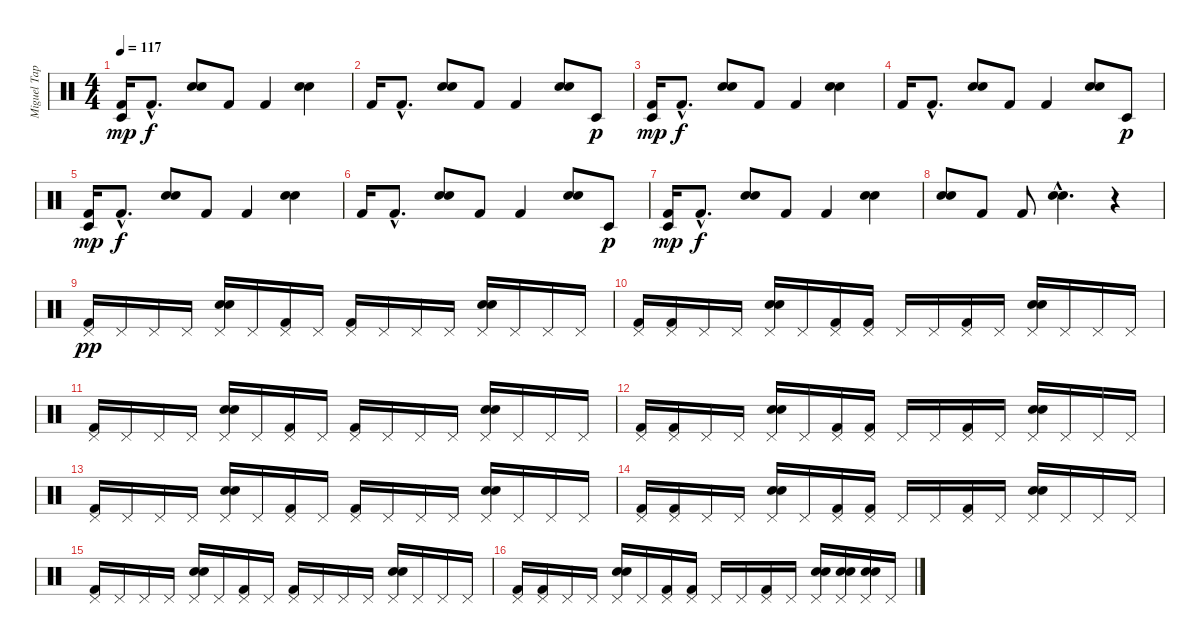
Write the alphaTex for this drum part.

\track ("Miguel Tapia" "Miguel Tap") {instrument percussion}
\staff {score}
\articulation defaults
\ts (4 4)
\tempo 117
\clef neutral
\ks c
("Kick (hit) 2" "Timbale low (hit)").16{dy mp} "Kick (hit) 2"{hac}.8{d dy f} ("Snare (hit) 2" "Electric Snare (hit)").8 "Kick (hit) 2".8 "Kick (hit) 2".4 ("Snare (hit) 2" "Electric Snare (hit)").4 |
"Kick (hit) 2".16 "Kick (hit) 2"{hac}.8{d} ("Snare (hit) 2" "Electric Snare (hit)").8 "Kick (hit) 2".8 "Kick (hit) 2".4 ("Snare (hit) 2" "Electric Snare (hit)").8 "Timbale low (hit)".8{dy p} |
("Kick (hit) 2" "Timbale low (hit)").16{dy mp} "Kick (hit) 2"{hac}.8{d dy f} ("Snare (hit) 2" "Electric Snare (hit)").8 "Kick (hit) 2".8 "Kick (hit) 2".4 ("Snare (hit) 2" "Electric Snare (hit)").4 |
"Kick (hit) 2".16 "Kick (hit) 2"{hac}.8{d} ("Snare (hit) 2" "Electric Snare (hit)").8 "Kick (hit) 2".8 "Kick (hit) 2".4 ("Snare (hit) 2" "Electric Snare (hit)").8 "Timbale low (hit)".8{dy p} |
("Kick (hit) 2" "Timbale low (hit)").16{dy mp} "Kick (hit) 2"{hac}.8{d dy f} ("Snare (hit) 2" "Electric Snare (hit)").8 "Kick (hit) 2".8 "Kick (hit) 2".4 ("Snare (hit) 2" "Electric Snare (hit)").4 |
"Kick (hit) 2".16 "Kick (hit) 2"{hac}.8{d} ("Snare (hit) 2" "Electric Snare (hit)").8 "Kick (hit) 2".8 "Kick (hit) 2".4 ("Snare (hit) 2" "Electric Snare (hit)").8 "Timbale low (hit)".8{dy p} |
("Kick (hit) 2" "Timbale low (hit)").16{dy mp} "Kick (hit) 2"{hac}.8{d dy f} ("Snare (hit) 2" "Electric Snare (hit)").8 "Kick (hit) 2".8 "Kick (hit) 2".4 ("Snare (hit) 2" "Electric Snare (hit)").4 |
("Electric Snare (hit)" "Snare (hit) 2").8 "Kick (hit) 2".8 "Kick (hit) 2".8 ("Electric Snare (hit)"{hac} "Snare (hit) 2"{hac}).4{d} r.4 |
("Kick (hit) 2" "Pedal Hi-Hat (hit)").16{dy pp} "Pedal Hi-Hat (hit)".16 "Pedal Hi-Hat (hit)".16 "Pedal Hi-Hat (hit)".16 ("Snare (hit) 2" "Electric Snare (hit)" "Pedal Hi-Hat (hit)").16 "Pedal Hi-Hat (hit)".16 ("Kick (hit) 2" "Pedal Hi-Hat (hit)").16 "Pedal Hi-Hat (hit)".16 ("Kick (hit) 2" "Pedal Hi-Hat (hit)").16 "Pedal Hi-Hat (hit)".16 "Pedal Hi-Hat (hit)".16 "Pedal Hi-Hat (hit)".16 ("Snare (hit) 2" "Electric Snare (hit)" "Pedal Hi-Hat (hit)").16 "Pedal Hi-Hat (hit)".16 "Pedal Hi-Hat (hit)".16 "Pedal Hi-Hat (hit)".16 |
("Kick (hit) 2" "Pedal Hi-Hat (hit)").16 ("Kick (hit) 2" "Pedal Hi-Hat (hit)").16 "Pedal Hi-Hat (hit)".16 "Pedal Hi-Hat (hit)".16 ("Snare (hit) 2" "Electric Snare (hit)" "Pedal Hi-Hat (hit)").16 "Pedal Hi-Hat (hit)".16 ("Kick (hit) 2" "Pedal Hi-Hat (hit)").16 ("Kick (hit) 2" "Pedal Hi-Hat (hit)").16 "Pedal Hi-Hat (hit)".16 "Pedal Hi-Hat (hit)".16 ("Kick (hit) 2" "Pedal Hi-Hat (hit)").16 "Pedal Hi-Hat (hit)".16 ("Snare (hit) 2" "Electric Snare (hit)" "Pedal Hi-Hat (hit)").16 "Pedal Hi-Hat (hit)".16 "Pedal Hi-Hat (hit)".16 "Pedal Hi-Hat (hit)".16 |
("Kick (hit) 2" "Pedal Hi-Hat (hit)").16 "Pedal Hi-Hat (hit)".16 "Pedal Hi-Hat (hit)".16 "Pedal Hi-Hat (hit)".16 ("Snare (hit) 2" "Electric Snare (hit)" "Pedal Hi-Hat (hit)").16 "Pedal Hi-Hat (hit)".16 ("Kick (hit) 2" "Pedal Hi-Hat (hit)").16 "Pedal Hi-Hat (hit)".16 ("Kick (hit) 2" "Pedal Hi-Hat (hit)").16 "Pedal Hi-Hat (hit)".16 "Pedal Hi-Hat (hit)".16 "Pedal Hi-Hat (hit)".16 ("Snare (hit) 2" "Electric Snare (hit)" "Pedal Hi-Hat (hit)").16 "Pedal Hi-Hat (hit)".16 "Pedal Hi-Hat (hit)".16 "Pedal Hi-Hat (hit)".16 |
("Kick (hit) 2" "Pedal Hi-Hat (hit)").16 ("Kick (hit) 2" "Pedal Hi-Hat (hit)").16 "Pedal Hi-Hat (hit)".16 "Pedal Hi-Hat (hit)".16 ("Snare (hit) 2" "Electric Snare (hit)" "Pedal Hi-Hat (hit)").16 "Pedal Hi-Hat (hit)".16 ("Kick (hit) 2" "Pedal Hi-Hat (hit)").16 ("Kick (hit) 2" "Pedal Hi-Hat (hit)").16 "Pedal Hi-Hat (hit)".16 "Pedal Hi-Hat (hit)".16 ("Kick (hit) 2" "Pedal Hi-Hat (hit)").16 "Pedal Hi-Hat (hit)".16 ("Snare (hit) 2" "Electric Snare (hit)" "Pedal Hi-Hat (hit)").16 "Pedal Hi-Hat (hit)".16 "Pedal Hi-Hat (hit)".16 "Pedal Hi-Hat (hit)".16 |
("Kick (hit) 2" "Pedal Hi-Hat (hit)").16 "Pedal Hi-Hat (hit)".16 "Pedal Hi-Hat (hit)".16 "Pedal Hi-Hat (hit)".16 ("Snare (hit) 2" "Electric Snare (hit)" "Pedal Hi-Hat (hit)").16 "Pedal Hi-Hat (hit)".16 ("Kick (hit) 2" "Pedal Hi-Hat (hit)").16 "Pedal Hi-Hat (hit)".16 ("Kick (hit) 2" "Pedal Hi-Hat (hit)").16 "Pedal Hi-Hat (hit)".16 "Pedal Hi-Hat (hit)".16 "Pedal Hi-Hat (hit)".16 ("Snare (hit) 2" "Electric Snare (hit)" "Pedal Hi-Hat (hit)").16 "Pedal Hi-Hat (hit)".16 "Pedal Hi-Hat (hit)".16 "Pedal Hi-Hat (hit)".16 |
("Kick (hit) 2" "Pedal Hi-Hat (hit)").16 ("Kick (hit) 2" "Pedal Hi-Hat (hit)").16 "Pedal Hi-Hat (hit)".16 "Pedal Hi-Hat (hit)".16 ("Snare (hit) 2" "Electric Snare (hit)" "Pedal Hi-Hat (hit)").16 "Pedal Hi-Hat (hit)".16 ("Kick (hit) 2" "Pedal Hi-Hat (hit)").16 ("Kick (hit) 2" "Pedal Hi-Hat (hit)").16 "Pedal Hi-Hat (hit)".16 "Pedal Hi-Hat (hit)".16 ("Kick (hit) 2" "Pedal Hi-Hat (hit)").16 "Pedal Hi-Hat (hit)".16 ("Snare (hit) 2" "Electric Snare (hit)" "Pedal Hi-Hat (hit)").16 "Pedal Hi-Hat (hit)".16 "Pedal Hi-Hat (hit)".16 "Pedal Hi-Hat (hit)".16 |
("Kick (hit) 2" "Pedal Hi-Hat (hit)").16 "Pedal Hi-Hat (hit)".16 "Pedal Hi-Hat (hit)".16 "Pedal Hi-Hat (hit)".16 ("Snare (hit) 2" "Electric Snare (hit)" "Pedal Hi-Hat (hit)").16 "Pedal Hi-Hat (hit)".16 ("Kick (hit) 2" "Pedal Hi-Hat (hit)").16 "Pedal Hi-Hat (hit)".16 ("Kick (hit) 2" "Pedal Hi-Hat (hit)").16 "Pedal Hi-Hat (hit)".16 "Pedal Hi-Hat (hit)".16 "Pedal Hi-Hat (hit)".16 ("Snare (hit) 2" "Electric Snare (hit)" "Pedal Hi-Hat (hit)").16 "Pedal Hi-Hat (hit)".16 "Pedal Hi-Hat (hit)".16 "Pedal Hi-Hat (hit)".16 |
("Kick (hit) 2" "Pedal Hi-Hat (hit)").16 ("Kick (hit) 2" "Pedal Hi-Hat (hit)").16 "Pedal Hi-Hat (hit)".16 "Pedal Hi-Hat (hit)".16 ("Snare (hit) 2" "Electric Snare (hit)" "Pedal Hi-Hat (hit)").16 "Pedal Hi-Hat (hit)".16 ("Kick (hit) 2" "Pedal Hi-Hat (hit)").16 ("Kick (hit) 2" "Pedal Hi-Hat (hit)").16 "Pedal Hi-Hat (hit)".16 "Pedal Hi-Hat (hit)".16 ("Kick (hit) 2" "Pedal Hi-Hat (hit)").16 "Pedal Hi-Hat (hit)".16 ("Snare (hit) 2" "Electric Snare (hit)" "Pedal Hi-Hat (hit)").16 ("Electric Snare (hit)" "Snare (hit) 2" "Pedal Hi-Hat (hit)").16 ("Electric Snare (hit)" "Snare (hit) 2" "Pedal Hi-Hat (hit)").16 "Pedal Hi-Hat (hit)".16
